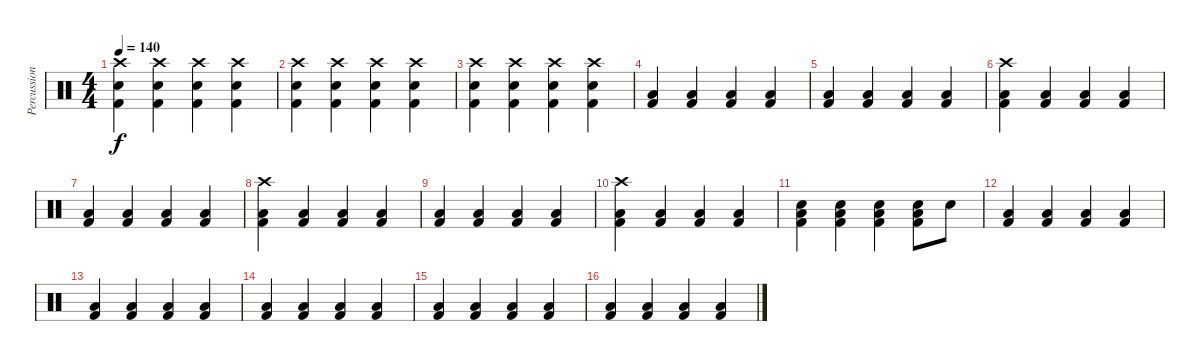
\track ("Percussion" "Percussion") {instrument percussion}
\staff {score}
\articulation defaults
\ts (4 4)
\tempo 140
\clef neutral
\ks c
("Crash high (hit)" "Electric Snare (hit)" "Kick (hit) 2").4{dy f} ("Crash high (hit)" "Electric Snare (hit)" "Kick (hit) 2").4 ("Crash high (hit)" "Electric Snare (hit)" "Kick (hit) 2").4 ("Crash high (hit)" "Electric Snare (hit)" "Kick (hit) 2").4 |
("Crash high (hit)" "Electric Snare (hit)" "Kick (hit) 2").4 ("Crash high (hit)" "Electric Snare (hit)" "Kick (hit) 2").4 ("Crash high (hit)" "Electric Snare (hit)" "Kick (hit) 2").4 ("Crash high (hit)" "Electric Snare (hit)" "Kick (hit) 2").4 |
("Crash high (hit)" "Electric Snare (hit)" "Kick (hit) 2").4 ("Crash high (hit)" "Electric Snare (hit)" "Kick (hit) 2").4 ("Crash high (hit)" "Electric Snare (hit)" "Kick (hit) 2").4 ("Crash high (hit)" "Electric Snare (hit)" "Kick (hit) 2").4 |
("Low Tom (hit)" "Kick (hit) 2").4 ("Low Tom (hit)" "Kick (hit) 2").4 ("Low Tom (hit)" "Kick (hit) 2").4 ("Low Tom (hit)" "Kick (hit) 2").4 |
("Low Tom (hit)" "Kick (hit) 2").4 ("Low Tom (hit)" "Kick (hit) 2").4 ("Low Tom (hit)" "Kick (hit) 2").4 ("Low Tom (hit)" "Kick (hit) 2").4 |
("Crash high (hit)" "Low Tom (hit)" "Kick (hit) 2").4 ("Low Tom (hit)" "Kick (hit) 2").4 ("Low Tom (hit)" "Kick (hit) 2").4 ("Low Tom (hit)" "Kick (hit) 2").4 |
("Low Tom (hit)" "Kick (hit) 2").4 ("Low Tom (hit)" "Kick (hit) 2").4 ("Low Tom (hit)" "Kick (hit) 2").4 ("Low Tom (hit)" "Kick (hit) 2").4 |
("Crash high (hit)" "Low Tom (hit)" "Kick (hit) 2").4 ("Low Tom (hit)" "Kick (hit) 2").4 ("Low Tom (hit)" "Kick (hit) 2").4 ("Low Tom (hit)" "Kick (hit) 2").4 |
("Low Tom (hit)" "Kick (hit) 2").4 ("Low Tom (hit)" "Kick (hit) 2").4 ("Low Tom (hit)" "Kick (hit) 2").4 ("Low Tom (hit)" "Kick (hit) 2").4 |
("Crash high (hit)" "Low Tom (hit)" "Kick (hit) 2").4 ("Low Tom (hit)" "Kick (hit) 2").4 ("Low Tom (hit)" "Kick (hit) 2").4 ("Low Tom (hit)" "Kick (hit) 2").4 |
("Electric Snare (hit)" "Low Tom (hit)" "Kick (hit) 2").4 ("Electric Snare (hit)" "Low Tom (hit)" "Kick (hit) 2").4 ("Electric Snare (hit)" "Low Tom (hit)" "Kick (hit) 2").4 ("Electric Snare (hit)" "Low Tom (hit)" "Kick (hit) 2").8 "Electric Snare (hit)".8 |
("Low Tom (hit)" "Kick (hit) 2").4 ("Low Tom (hit)" "Kick (hit) 2").4 ("Low Tom (hit)" "Kick (hit) 2").4 ("Low Tom (hit)" "Kick (hit) 2").4 |
("Low Tom (hit)" "Kick (hit) 2").4 ("Low Tom (hit)" "Kick (hit) 2").4 ("Low Tom (hit)" "Kick (hit) 2").4 ("Low Tom (hit)" "Kick (hit) 2").4 |
("Low Tom (hit)" "Kick (hit) 2").4 ("Low Tom (hit)" "Kick (hit) 2").4 ("Low Tom (hit)" "Kick (hit) 2").4 ("Low Tom (hit)" "Kick (hit) 2").4 |
("Low Tom (hit)" "Kick (hit) 2").4 ("Low Tom (hit)" "Kick (hit) 2").4 ("Low Tom (hit)" "Kick (hit) 2").4 ("Low Tom (hit)" "Kick (hit) 2").4 |
("Low Tom (hit)" "Kick (hit) 2").4 ("Low Tom (hit)" "Kick (hit) 2").4 ("Low Tom (hit)" "Kick (hit) 2").4 ("Low Tom (hit)" "Kick (hit) 2").4
